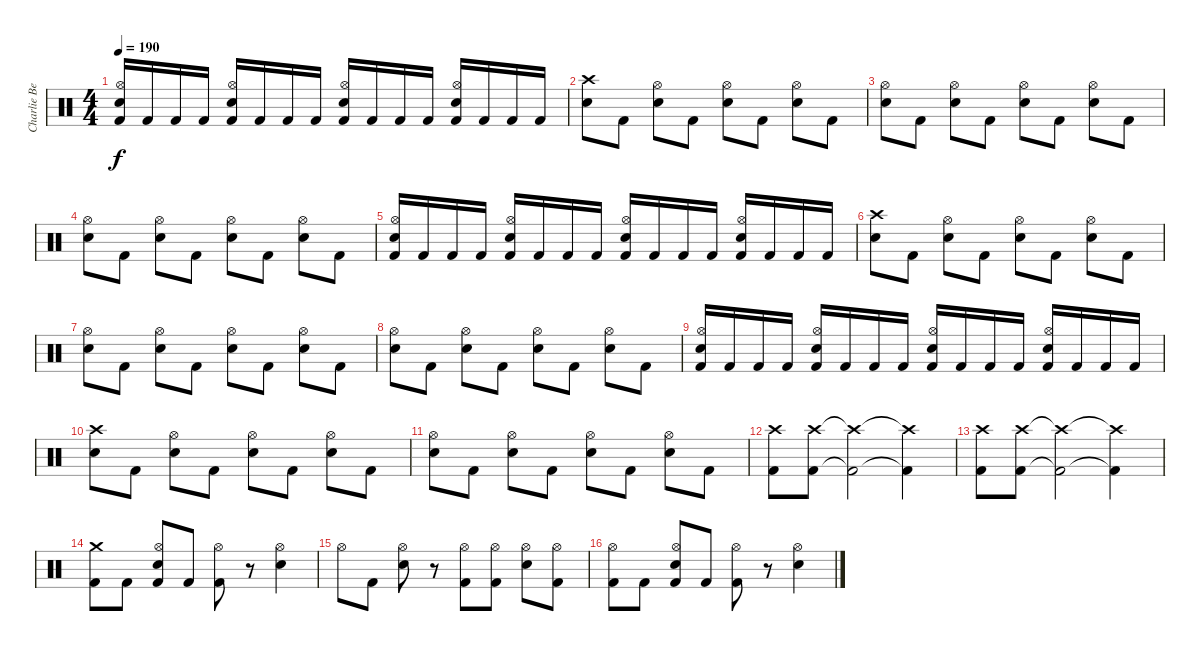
\track ("Charlie Benante" "Charlie Be") {instrument percussion}
\staff {score}
\articulation defaults
\ts (4 4)
\tempo 190
\clef neutral
\ks c
("Snare (hit) 2" "Hi-Hat (open)" "Kick (hit) 2").16{dy f} "Kick (hit) 2".16 "Kick (hit) 2".16 "Kick (hit) 2".16 ("Snare (hit) 2" "Hi-Hat (open)" "Kick (hit) 2").16 "Kick (hit) 2".16 "Kick (hit) 2".16 "Kick (hit) 2".16 ("Snare (hit) 2" "Hi-Hat (open)" "Kick (hit) 2").16 "Kick (hit) 2".16 "Kick (hit) 2".16 "Kick (hit) 2".16 ("Snare (hit) 2" "Hi-Hat (open)" "Kick (hit) 2").16 "Kick (hit) 2".16 "Kick (hit) 2".16 "Kick (hit) 2".16 |
("Snare (hit) 2" "Crash high (hit)").8 "Kick (hit) 2".8 ("Snare (hit) 2" "Hi-Hat (open)").8 "Kick (hit) 2".8 ("Snare (hit) 2" "Hi-Hat (open)").8 "Kick (hit) 2".8 ("Snare (hit) 2" "Hi-Hat (open)").8 "Kick (hit) 2".8 |
("Snare (hit) 2" "Hi-Hat (open)").8 "Kick (hit) 2".8 ("Snare (hit) 2" "Hi-Hat (open)").8 "Kick (hit) 2".8 ("Snare (hit) 2" "Hi-Hat (open)").8 "Kick (hit) 2".8 ("Snare (hit) 2" "Hi-Hat (open)").8 "Kick (hit) 2".8 |
("Snare (hit) 2" "Hi-Hat (open)").8 "Kick (hit) 2".8 ("Snare (hit) 2" "Hi-Hat (open)").8 "Kick (hit) 2".8 ("Snare (hit) 2" "Hi-Hat (open)").8 "Kick (hit) 2".8 ("Snare (hit) 2" "Hi-Hat (open)").8 "Kick (hit) 2".8 |
("Snare (hit) 2" "Hi-Hat (open)" "Kick (hit) 2").16 "Kick (hit) 2".16 "Kick (hit) 2".16 "Kick (hit) 2".16 ("Snare (hit) 2" "Hi-Hat (open)" "Kick (hit) 2").16 "Kick (hit) 2".16 "Kick (hit) 2".16 "Kick (hit) 2".16 ("Snare (hit) 2" "Hi-Hat (open)" "Kick (hit) 2").16 "Kick (hit) 2".16 "Kick (hit) 2".16 "Kick (hit) 2".16 ("Snare (hit) 2" "Hi-Hat (open)" "Kick (hit) 2").16 "Kick (hit) 2".16 "Kick (hit) 2".16 "Kick (hit) 2".16 |
("Snare (hit) 2" "Crash high (hit)").8 "Kick (hit) 2".8 ("Snare (hit) 2" "Hi-Hat (open)").8 "Kick (hit) 2".8 ("Snare (hit) 2" "Hi-Hat (open)").8 "Kick (hit) 2".8 ("Snare (hit) 2" "Hi-Hat (open)").8 "Kick (hit) 2".8 |
("Snare (hit) 2" "Hi-Hat (open)").8 "Kick (hit) 2".8 ("Snare (hit) 2" "Hi-Hat (open)").8 "Kick (hit) 2".8 ("Snare (hit) 2" "Hi-Hat (open)").8 "Kick (hit) 2".8 ("Snare (hit) 2" "Hi-Hat (open)").8 "Kick (hit) 2".8 |
("Snare (hit) 2" "Hi-Hat (open)").8 "Kick (hit) 2".8 ("Snare (hit) 2" "Hi-Hat (open)").8 "Kick (hit) 2".8 ("Snare (hit) 2" "Hi-Hat (open)").8 "Kick (hit) 2".8 ("Snare (hit) 2" "Hi-Hat (open)").8 "Kick (hit) 2".8 |
("Snare (hit) 2" "Hi-Hat (open)" "Kick (hit) 2").16 "Kick (hit) 2".16 "Kick (hit) 2".16 "Kick (hit) 2".16 ("Snare (hit) 2" "Hi-Hat (open)" "Kick (hit) 2").16 "Kick (hit) 2".16 "Kick (hit) 2".16 "Kick (hit) 2".16 ("Snare (hit) 2" "Hi-Hat (open)" "Kick (hit) 2").16 "Kick (hit) 2".16 "Kick (hit) 2".16 "Kick (hit) 2".16 ("Snare (hit) 2" "Hi-Hat (open)" "Kick (hit) 2").16 "Kick (hit) 2".16 "Kick (hit) 2".16 "Kick (hit) 2".16 |
("Snare (hit) 2" "Crash high (hit)").8 "Kick (hit) 2".8 ("Snare (hit) 2" "Hi-Hat (open)").8 "Kick (hit) 2".8 ("Snare (hit) 2" "Hi-Hat (open)").8 "Kick (hit) 2".8 ("Snare (hit) 2" "Hi-Hat (open)").8 "Kick (hit) 2".8 |
("Snare (hit) 2" "Hi-Hat (open)").8 "Kick (hit) 2".8 ("Snare (hit) 2" "Hi-Hat (open)").8 "Kick (hit) 2".8 ("Snare (hit) 2" "Hi-Hat (open)").8 "Kick (hit) 2".8 ("Snare (hit) 2" "Hi-Hat (open)").8 "Kick (hit) 2".8 |
("Crash high (hit)" "Kick (hit) 2").8 ("Crash high (hit)" "Kick (hit) 2").8 ("Crash high (hit)"{t} "Kick (hit) 2"{t}).2 ("Crash high (hit)"{t} "Kick (hit) 2"{t}).4 |
("Crash high (hit)" "Kick (hit) 2").8 ("Crash high (hit)" "Kick (hit) 2").8 ("Crash high (hit)"{t} "Kick (hit) 2"{t}).2 ("Crash high (hit)"{t} "Kick (hit) 2"{t}).4 |
("Crash medium (hit)" "Kick (hit) 2").8 "Kick (hit) 2".8 ("Snare (hit) 2" "Hi-Hat (open)" "Kick (hit) 2").8 "Kick (hit) 2".8 ("Hi-Hat (open)" "Kick (hit) 2").8 r.8 ("Snare (hit) 2" "Hi-Hat (open)").4 |
"Hi-Hat (open)".8 "Kick (hit) 2".8 ("Snare (hit) 2" "Hi-Hat (open)").8 r.8 ("Hi-Hat (open)" "Kick (hit) 2").8 ("Hi-Hat (open)" "Kick (hit) 2").8 ("Snare (hit) 2" "Hi-Hat (open)").8 ("Hi-Hat (open)" "Kick (hit) 2").8 |
("Hi-Hat (open)" "Kick (hit) 2").8 "Kick (hit) 2".8 ("Snare (hit) 2" "Hi-Hat (open)" "Kick (hit) 2").8 "Kick (hit) 2".8 ("Hi-Hat (open)" "Kick (hit) 2").8 r.8 ("Snare (hit) 2" "Hi-Hat (open)").4
